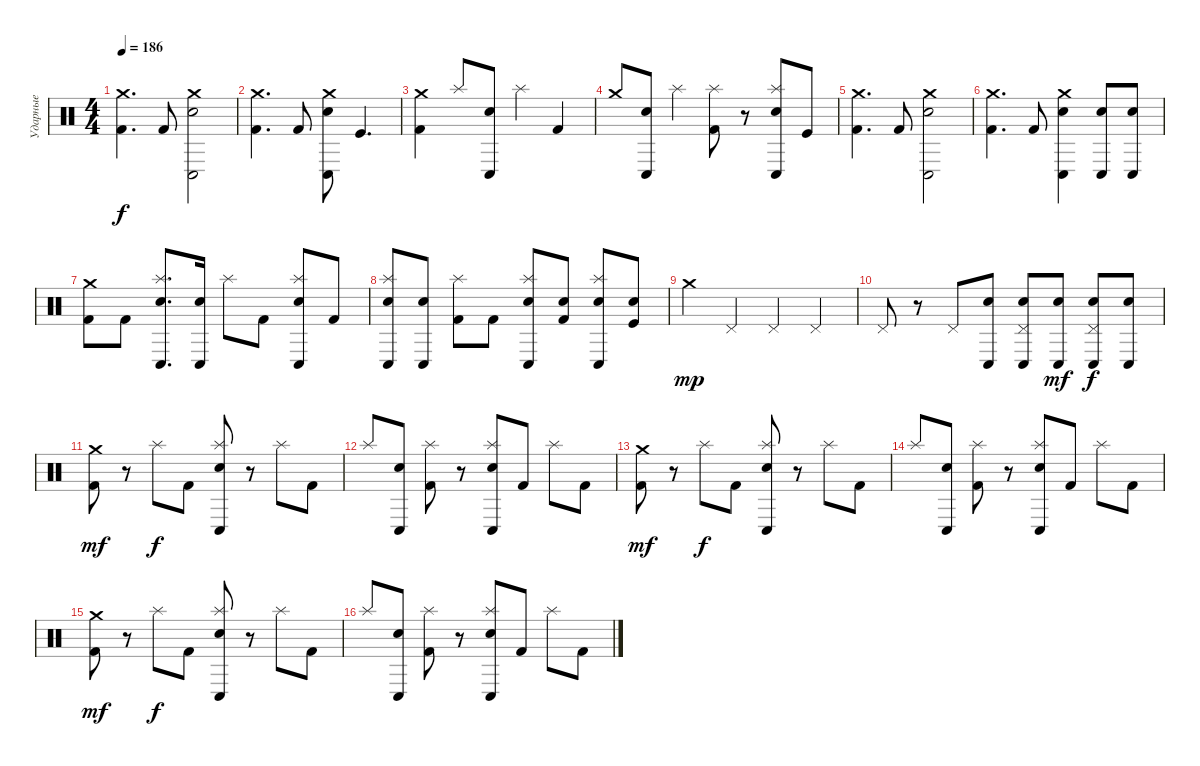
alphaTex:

\track ("Ударные" "Ударные") {instrument percussion}
\staff {score}
\articulation defaults
\ts (4 4)
\tempo 186
\clef neutral
\ks c
("Crash medium (hit)" "Kick (hit) 2").4{d dy f} "Kick (hit) 2".8 ("Crash medium (hit)" "Conga low (hit)" "Electric Snare (hit)").2 |
("Crash medium (hit)" "Kick (hit) 2").4{d} "Kick (hit) 2".8 ("Crash medium (hit)" "Conga low (hit)" "Electric Snare (hit)").8 "Kick (hit)".4{d} |
("Crash medium (hit)" "Kick (hit) 2").4 "Splash (hit)".8 ("Conga low (hit)" "Electric Snare (hit)").8 "Splash (hit)".4 "Kick (hit) 2".4 |
"Crash medium (hit)".8 ("Conga low (hit)" "Electric Snare (hit)").8 "Splash (hit)".4 ("Splash (hit)" "Kick (hit) 2").8 r.8 ("Splash (hit)" "Conga low (hit)" "Electric Snare (hit)").8 "Kick (hit)".8 |
("Crash medium (hit)" "Kick (hit) 2").4{d} "Kick (hit) 2".8 ("Crash medium (hit)" "Conga low (hit)" "Electric Snare (hit)").2 |
("Crash medium (hit)" "Kick (hit) 2").4{d} "Kick (hit) 2".8 ("Crash medium (hit)" "Conga low (hit)" "Electric Snare (hit)").4 ("Conga low (hit)" "Electric Snare (hit)").8 ("Conga low (hit)" "Electric Snare (hit)").8 |
("Crash medium (hit)" "Kick (hit) 2").8 "Kick (hit) 2".8 ("Splash (hit)" "Conga low (hit)" "Electric Snare (hit)").8{d} ("Conga low (hit)" "Electric Snare (hit)").16 "Splash (hit)".8 "Kick (hit) 2".8 ("Splash (hit)" "Conga low (hit)" "Electric Snare (hit)").8 "Kick (hit) 2".8 |
("Splash (hit)" "Conga low (hit)" "Electric Snare (hit)").8 ("Conga low (hit)" "Electric Snare (hit)").8 ("Splash (hit)" "Kick (hit) 2").8 "Kick (hit) 2".8 ("Splash (hit)" "Conga low (hit)" "Electric Snare (hit)").8 ("Electric Snare (hit)" "Kick (hit) 2").8 ("Splash (hit)" "Conga low (hit)" "Electric Snare (hit)").8 ("Electric Snare (hit)" "Kick (hit)").8 |
"Crash medium (hit)".4{dy mp} "Pedal Hi-Hat (hit)".4 "Pedal Hi-Hat (hit)".4 "Pedal Hi-Hat (hit)".4 |
"Pedal Hi-Hat (hit)".8 r.8 "Pedal Hi-Hat (hit)".8 ("Conga low (hit)" "Electric Snare (hit)").8 ("Pedal Hi-Hat (hit)" "Conga low (hit)" "Electric Snare (hit)").8 ("Conga low (hit)" "Electric Snare (hit)").8{dy mf} ("Pedal Hi-Hat (hit)" "Conga low (hit)" "Electric Snare (hit)").8{dy f} ("Conga low (hit)" "Electric Snare (hit)").8 |
("Crash medium (hit)" "Kick (hit) 2").8{dy mf} r.8 "Splash (hit)".8{dy f} "Kick (hit) 2".8 ("Splash (hit)" "Conga low (hit)" "Electric Snare (hit)").8 r.8 "Splash (hit)".8 "Kick (hit) 2".8 |
"Splash (hit)".8 ("Conga low (hit)" "Electric Snare (hit)").8 ("Splash (hit)" "Kick (hit) 2").8 r.8 ("Splash (hit)" "Conga low (hit)" "Electric Snare (hit)").8 "Kick (hit) 2".8 "Splash (hit)".8 "Kick (hit) 2".8 |
("Crash medium (hit)" "Kick (hit) 2").8{dy mf} r.8 "Splash (hit)".8{dy f} "Kick (hit) 2".8 ("Splash (hit)" "Conga low (hit)" "Electric Snare (hit)").8 r.8 "Splash (hit)".8 "Kick (hit) 2".8 |
"Splash (hit)".8 ("Conga low (hit)" "Electric Snare (hit)").8 ("Splash (hit)" "Kick (hit) 2").8 r.8 ("Splash (hit)" "Conga low (hit)" "Electric Snare (hit)").8 "Kick (hit) 2".8 "Splash (hit)".8 "Kick (hit) 2".8 |
("Crash medium (hit)" "Kick (hit) 2").8{dy mf} r.8 "Splash (hit)".8{dy f} "Kick (hit) 2".8 ("Splash (hit)" "Conga low (hit)" "Electric Snare (hit)").8 r.8 "Splash (hit)".8 "Kick (hit) 2".8 |
"Splash (hit)".8 ("Conga low (hit)" "Electric Snare (hit)").8 ("Splash (hit)" "Kick (hit) 2").8 r.8 ("Splash (hit)" "Conga low (hit)" "Electric Snare (hit)").8 "Kick (hit) 2".8 "Splash (hit)".8 "Kick (hit) 2".8
